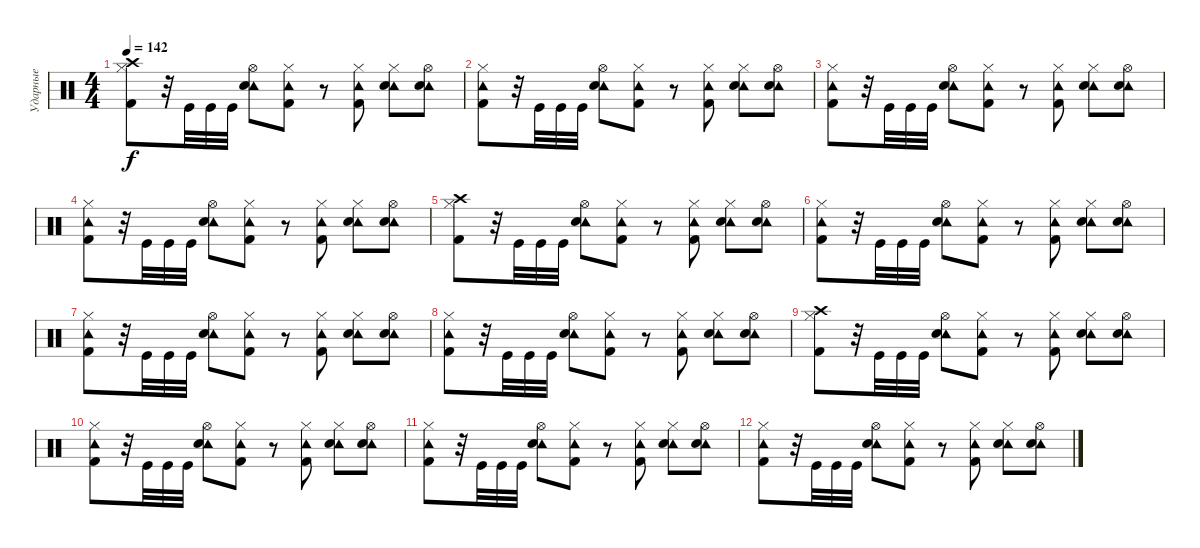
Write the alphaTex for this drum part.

\track ("Ударные" "Ударные") {instrument percussion}
\staff {score}
\articulation defaults
\ts (4 4)
\tempo 142
\clef neutral
\ks c
("Crash high (hit)" "Hi-Hat (closed)" "Kick (hit) 2").8{dy f} r.32 "Kick (hit)".32 "Kick (hit)".32 "Kick (hit)".32 ("Tambourine (hit)" "Hi-Hat (open)" "Electric Snare (hit)").8 ("Tambourine (hit)" "Hi-Hat (closed)" "Kick (hit) 2").8 r.8 ("Tambourine (hit)" "Hi-Hat (closed)" "Kick (hit) 2").8 ("Tambourine (hit)" "Hi-Hat (closed)" "Electric Snare (hit)").8 ("Tambourine (hit)" "Hi-Hat (open)" "Electric Snare (hit)").8 |
("Tambourine (hit)" "Hi-Hat (closed)" "Kick (hit) 2").8 r.32 "Kick (hit)".32 "Kick (hit)".32 "Kick (hit)".32 ("Tambourine (hit)" "Hi-Hat (open)" "Electric Snare (hit)").8 ("Tambourine (hit)" "Hi-Hat (closed)" "Kick (hit) 2").8 r.8 ("Tambourine (hit)" "Hi-Hat (closed)" "Kick (hit) 2").8 ("Tambourine (hit)" "Hi-Hat (closed)" "Electric Snare (hit)").8 ("Tambourine (hit)" "Hi-Hat (open)" "Electric Snare (hit)").8 |
("Tambourine (hit)" "Hi-Hat (closed)" "Kick (hit) 2").8 r.32 "Kick (hit)".32 "Kick (hit)".32 "Kick (hit)".32 ("Tambourine (hit)" "Hi-Hat (open)" "Electric Snare (hit)").8 ("Tambourine (hit)" "Hi-Hat (closed)" "Kick (hit) 2").8 r.8 ("Tambourine (hit)" "Hi-Hat (closed)" "Kick (hit) 2").8 ("Tambourine (hit)" "Hi-Hat (closed)" "Electric Snare (hit)").8 ("Tambourine (hit)" "Hi-Hat (open)" "Electric Snare (hit)").8 |
("Tambourine (hit)" "Hi-Hat (closed)" "Kick (hit) 2").8 r.32 "Kick (hit)".32 "Kick (hit)".32 "Kick (hit)".32 ("Tambourine (hit)" "Hi-Hat (open)" "Electric Snare (hit)").8 ("Tambourine (hit)" "Hi-Hat (closed)" "Kick (hit) 2").8 r.8 ("Tambourine (hit)" "Hi-Hat (closed)" "Kick (hit) 2").8 ("Tambourine (hit)" "Hi-Hat (closed)" "Electric Snare (hit)").8 ("Tambourine (hit)" "Hi-Hat (open)" "Electric Snare (hit)").8 |
("Crash high (hit)" "Hi-Hat (closed)" "Kick (hit) 2").8 r.32 "Kick (hit)".32 "Kick (hit)".32 "Kick (hit)".32 ("Tambourine (hit)" "Hi-Hat (open)" "Electric Snare (hit)").8 ("Tambourine (hit)" "Hi-Hat (closed)" "Kick (hit) 2").8 r.8 ("Tambourine (hit)" "Hi-Hat (closed)" "Kick (hit) 2").8 ("Tambourine (hit)" "Hi-Hat (closed)" "Electric Snare (hit)").8 ("Tambourine (hit)" "Hi-Hat (open)" "Electric Snare (hit)").8 |
("Tambourine (hit)" "Hi-Hat (closed)" "Kick (hit) 2").8 r.32 "Kick (hit)".32 "Kick (hit)".32 "Kick (hit)".32 ("Tambourine (hit)" "Hi-Hat (open)" "Electric Snare (hit)").8 ("Tambourine (hit)" "Hi-Hat (closed)" "Kick (hit) 2").8 r.8 ("Tambourine (hit)" "Hi-Hat (closed)" "Kick (hit) 2").8 ("Tambourine (hit)" "Hi-Hat (closed)" "Electric Snare (hit)").8 ("Tambourine (hit)" "Hi-Hat (open)" "Electric Snare (hit)").8 |
("Tambourine (hit)" "Hi-Hat (closed)" "Kick (hit) 2").8 r.32 "Kick (hit)".32 "Kick (hit)".32 "Kick (hit)".32 ("Tambourine (hit)" "Hi-Hat (open)" "Electric Snare (hit)").8 ("Tambourine (hit)" "Hi-Hat (closed)" "Kick (hit) 2").8 r.8 ("Tambourine (hit)" "Hi-Hat (closed)" "Kick (hit) 2").8 ("Tambourine (hit)" "Hi-Hat (closed)" "Electric Snare (hit)").8 ("Tambourine (hit)" "Hi-Hat (open)" "Electric Snare (hit)").8 |
("Tambourine (hit)" "Hi-Hat (closed)" "Kick (hit) 2").8 r.32 "Kick (hit)".32 "Kick (hit)".32 "Kick (hit)".32 ("Tambourine (hit)" "Hi-Hat (open)" "Electric Snare (hit)").8 ("Tambourine (hit)" "Hi-Hat (closed)" "Kick (hit) 2").8 r.8 ("Tambourine (hit)" "Hi-Hat (closed)" "Kick (hit) 2").8 ("Tambourine (hit)" "Hi-Hat (closed)" "Electric Snare (hit)").8 ("Tambourine (hit)" "Hi-Hat (open)" "Electric Snare (hit)").8 |
("Crash high (hit)" "Hi-Hat (closed)" "Kick (hit) 2").8 r.32 "Kick (hit)".32 "Kick (hit)".32 "Kick (hit)".32 ("Tambourine (hit)" "Hi-Hat (open)" "Electric Snare (hit)").8 ("Tambourine (hit)" "Hi-Hat (closed)" "Kick (hit) 2").8 r.8 ("Tambourine (hit)" "Hi-Hat (closed)" "Kick (hit) 2").8 ("Tambourine (hit)" "Hi-Hat (closed)" "Electric Snare (hit)").8 ("Tambourine (hit)" "Hi-Hat (open)" "Electric Snare (hit)").8 |
("Tambourine (hit)" "Hi-Hat (closed)" "Kick (hit) 2").8 r.32 "Kick (hit)".32 "Kick (hit)".32 "Kick (hit)".32 ("Tambourine (hit)" "Hi-Hat (open)" "Electric Snare (hit)").8 ("Tambourine (hit)" "Hi-Hat (closed)" "Kick (hit) 2").8 r.8 ("Tambourine (hit)" "Hi-Hat (closed)" "Kick (hit) 2").8 ("Tambourine (hit)" "Hi-Hat (closed)" "Electric Snare (hit)").8 ("Tambourine (hit)" "Hi-Hat (open)" "Electric Snare (hit)").8 |
("Tambourine (hit)" "Hi-Hat (closed)" "Kick (hit) 2").8 r.32 "Kick (hit)".32 "Kick (hit)".32 "Kick (hit)".32 ("Tambourine (hit)" "Hi-Hat (open)" "Electric Snare (hit)").8 ("Tambourine (hit)" "Hi-Hat (closed)" "Kick (hit) 2").8 r.8 ("Tambourine (hit)" "Hi-Hat (closed)" "Kick (hit) 2").8 ("Tambourine (hit)" "Hi-Hat (closed)" "Electric Snare (hit)").8 ("Tambourine (hit)" "Hi-Hat (open)" "Electric Snare (hit)").8 |
("Tambourine (hit)" "Hi-Hat (closed)" "Kick (hit) 2").8 r.32 "Kick (hit)".32 "Kick (hit)".32 "Kick (hit)".32 ("Tambourine (hit)" "Hi-Hat (open)" "Electric Snare (hit)").8 ("Tambourine (hit)" "Hi-Hat (closed)" "Kick (hit) 2").8 r.8 ("Tambourine (hit)" "Hi-Hat (closed)" "Kick (hit) 2").8 ("Tambourine (hit)" "Hi-Hat (closed)" "Electric Snare (hit)").8 ("Tambourine (hit)" "Hi-Hat (open)" "Electric Snare (hit)").8
